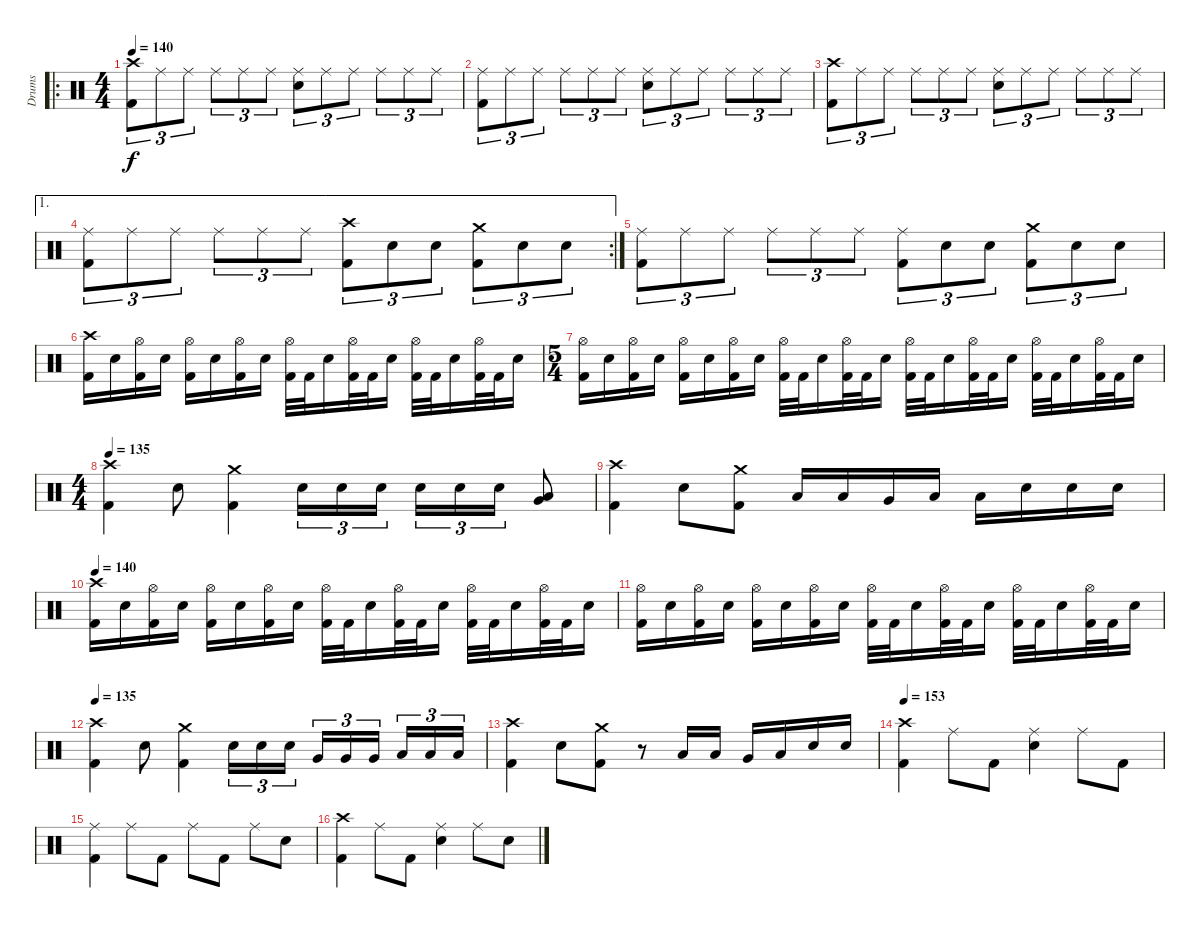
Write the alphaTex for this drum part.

\track ("Drums" "Drums") {instrument percussion}
\staff {score}
\articulation defaults
\ro
\ts (4 4)
\tempo 140
\clef neutral
\ks c
("Crash high (hit)" "Kick (hit) 2").8{tu (3 2) dy f} "Ride (middle)".8{tu (3 2)} "Ride (middle)".8{tu (3 2)} "Ride (middle)".8{tu (3 2)} "Ride (middle)".8{tu (3 2)} "Ride (middle)".8{tu (3 2)} ("Ride (middle)" "Electric Snare (hit)").8{tu (3 2)} "Ride (middle)".8{tu (3 2)} "Ride (middle)".8{tu (3 2)} "Ride (middle)".8{tu (3 2)} "Ride (middle)".8{tu (3 2)} "Ride (middle)".8{tu (3 2)} |
("Ride (middle)" "Kick (hit) 2").8{tu (3 2)} "Ride (middle)".8{tu (3 2)} "Ride (middle)".8{tu (3 2)} "Ride (middle)".8{tu (3 2)} "Ride (middle)".8{tu (3 2)} "Ride (middle)".8{tu (3 2)} ("Ride (middle)" "Electric Snare (hit)").8{tu (3 2)} "Ride (middle)".8{tu (3 2)} "Ride (middle)".8{tu (3 2)} "Ride (middle)".8{tu (3 2)} "Ride (middle)".8{tu (3 2)} "Ride (middle)".8{tu (3 2)} |
("Crash high (hit)" "Kick (hit) 2").8{tu (3 2)} "Ride (middle)".8{tu (3 2)} "Ride (middle)".8{tu (3 2)} "Ride (middle)".8{tu (3 2)} "Ride (middle)".8{tu (3 2)} "Ride (middle)".8{tu (3 2)} ("Ride (middle)" "Electric Snare (hit)").8{tu (3 2)} "Ride (middle)".8{tu (3 2)} "Ride (middle)".8{tu (3 2)} "Ride (middle)".8{tu (3 2)} "Ride (middle)".8{tu (3 2)} "Ride (middle)".8{tu (3 2)} |
\ae 1
\rc 2
("Ride (middle)" "Kick (hit) 2").8{tu (3 2)} "Ride (middle)".8{tu (3 2)} "Ride (middle)".8{tu (3 2)} "Ride (middle)".8{tu (3 2)} "Ride (middle)".8{tu (3 2)} "Ride (middle)".8{tu (3 2)} ("Crash high (hit)" "Kick (hit) 2").8{tu (3 2)} "Electric Snare (hit)".8{tu (3 2)} "Electric Snare (hit)".8{tu (3 2)} ("Crash medium (hit)" "Kick (hit) 2").8{tu (3 2)} "Electric Snare (hit)".8{tu (3 2)} "Electric Snare (hit)".8{tu (3 2)} |
("Ride (middle)" "Kick (hit) 2").8{tu (3 2)} "Ride (middle)".8{tu (3 2)} "Ride (middle)".8{tu (3 2)} "Ride (middle)".8{tu (3 2)} "Ride (middle)".8{tu (3 2)} "Ride (middle)".8{tu (3 2)} ("Ride (middle)" "Kick (hit) 2").8{tu (3 2)} "Electric Snare (hit)".8{tu (3 2)} "Electric Snare (hit)".8{tu (3 2)} ("Crash medium (hit)" "Kick (hit) 2").8{tu (3 2)} "Electric Snare (hit)".8{tu (3 2)} "Electric Snare (hit)".8{tu (3 2)} |
("Crash high (hit)" "Kick (hit) 2").16 "Electric Snare (hit)".16 ("Hi-Hat (open)" "Kick (hit) 2").16 "Electric Snare (hit)".16 ("Hi-Hat (open)" "Kick (hit) 2").16 "Electric Snare (hit)".16 ("Hi-Hat (open)" "Kick (hit) 2").16 "Electric Snare (hit)".16 ("Hi-Hat (open)" "Kick (hit) 2").32 "Kick (hit) 2".32 "Electric Snare (hit)".16 ("Hi-Hat (open)" "Kick (hit) 2").32 "Kick (hit) 2".32 "Electric Snare (hit)".16 ("Hi-Hat (open)" "Kick (hit) 2").32 "Kick (hit) 2".32 "Electric Snare (hit)".16 ("Hi-Hat (open)" "Kick (hit) 2").32 "Kick (hit) 2".32 "Electric Snare (hit)".16 |
\ts (5 4)
("Hi-Hat (open)" "Kick (hit) 2").16 "Electric Snare (hit)".16 ("Hi-Hat (open)" "Kick (hit) 2").16 "Electric Snare (hit)".16 ("Hi-Hat (open)" "Kick (hit) 2").16 "Electric Snare (hit)".16 ("Hi-Hat (open)" "Kick (hit) 2").16 "Electric Snare (hit)".16 ("Hi-Hat (open)" "Kick (hit) 2").32 "Kick (hit) 2".32 "Electric Snare (hit)".16 ("Hi-Hat (open)" "Kick (hit) 2").32 "Kick (hit) 2".32 "Electric Snare (hit)".16 ("Hi-Hat (open)" "Kick (hit) 2").32 "Kick (hit) 2".32 "Electric Snare (hit)".16 ("Hi-Hat (open)" "Kick (hit) 2").32 "Kick (hit) 2".32 "Electric Snare (hit)".16 ("Hi-Hat (open)" "Kick (hit) 2").32 "Kick (hit) 2".32 "Electric Snare (hit)".16 ("Hi-Hat (open)" "Kick (hit) 2").32 "Kick (hit) 2".32 "Electric Snare (hit)".16 |
\ts (4 4)
\tempo 135
("Crash high (hit)" "Kick (hit) 2").4 "Electric Snare (hit)".8 ("Crash medium (hit)" "Kick (hit) 2").4 "Electric Snare (hit)".16{tu (3 2)} "Electric Snare (hit)".16{tu (3 2)} "Electric Snare (hit)".16{tu (3 2)} "Electric Snare (hit)".16{tu (3 2)} "Electric Snare (hit)".16{tu (3 2)} "Electric Snare (hit)".16{tu (3 2)} ("Very Low Tom (hit)" "Low Floor Tom (hit)").8 |
("Crash high (hit)" "Kick (hit) 2").4 "Electric Snare (hit)".8 ("Crash medium (hit)" "Kick (hit) 2").8 "Low Tom (hit)".16 "Low Tom (hit)".16 "Very Low Tom (hit)".16 "Low Floor Tom (hit)".16 "Low Floor Tom (hit)".16 "Electric Snare (hit)".16 "Electric Snare (hit)".16 "Electric Snare (hit)".16 |
\tempo 140
("Crash high (hit)" "Kick (hit) 2").16 "Electric Snare (hit)".16 ("Hi-Hat (open)" "Kick (hit) 2").16 "Electric Snare (hit)".16 ("Hi-Hat (open)" "Kick (hit) 2").16 "Electric Snare (hit)".16 ("Hi-Hat (open)" "Kick (hit) 2").16 "Electric Snare (hit)".16 ("Hi-Hat (open)" "Kick (hit) 2").32 "Kick (hit) 2".32 "Electric Snare (hit)".16 ("Hi-Hat (open)" "Kick (hit) 2").32 "Kick (hit) 2".32 "Electric Snare (hit)".16 ("Hi-Hat (open)" "Kick (hit) 2").32 "Kick (hit) 2".32 "Electric Snare (hit)".16 ("Hi-Hat (open)" "Kick (hit) 2").32 "Kick (hit) 2".32 "Electric Snare (hit)".16 |
("Hi-Hat (open)" "Kick (hit) 2").16 "Electric Snare (hit)".16 ("Hi-Hat (open)" "Kick (hit) 2").16 "Electric Snare (hit)".16 ("Hi-Hat (open)" "Kick (hit) 2").16 "Electric Snare (hit)".16 ("Hi-Hat (open)" "Kick (hit) 2").16 "Electric Snare (hit)".16 ("Hi-Hat (open)" "Kick (hit) 2").32 "Kick (hit) 2".32 "Electric Snare (hit)".16 ("Hi-Hat (open)" "Kick (hit) 2").32 "Kick (hit) 2".32 "Electric Snare (hit)".16 ("Hi-Hat (open)" "Kick (hit) 2").32 "Kick (hit) 2".32 "Electric Snare (hit)".16 ("Hi-Hat (open)" "Kick (hit) 2").32 "Kick (hit) 2".32 "Electric Snare (hit)".16 |
\tempo 135
("Crash high (hit)" "Kick (hit) 2").4 "Electric Snare (hit)".8 ("Crash medium (hit)" "Kick (hit) 2").4 "Electric Snare (hit)".16{tu (3 2)} "Electric Snare (hit)".16{tu (3 2)} "Electric Snare (hit)".16{tu (3 2)} "Very Low Tom (hit)".16{tu (3 2)} "Very Low Tom (hit)".16{tu (3 2)} "Very Low Tom (hit)".16{tu (3 2) beam splitsecondary} "Low Floor Tom (hit)".16{tu (3 2)} "Low Floor Tom (hit)".16{tu (3 2)} "Low Floor Tom (hit)".16{tu (3 2)} |
("Crash high (hit)" "Kick (hit) 2").4 "Electric Snare (hit)".8 ("Crash medium (hit)" "Kick (hit) 2").8 r.8 "Low Tom (hit)".16 "Low Tom (hit)".16 "Very Low Tom (hit)".16 "Low Floor Tom (hit)".16 "Electric Snare (hit)".16 "Electric Snare (hit)".16 |
\tempo 153
("Crash high (hit)" "Kick (hit) 2").4 "Ride (middle)".8 "Kick (hit) 2".8 ("Ride (middle)" "Electric Snare (hit)").4 "Ride (middle)".8 "Kick (hit) 2".8 |
("Ride (middle)" "Kick (hit) 2").4 "Ride (middle)".8 "Kick (hit) 2".8 "Ride (middle)".8 "Kick (hit) 2".8 "Ride (middle)".8 "Electric Snare (hit)".8 |
("Crash high (hit)" "Kick (hit) 2").4 "Ride (middle)".8 "Kick (hit) 2".8 ("Ride (middle)" "Electric Snare (hit)").4 "Ride (middle)".8 "Electric Snare (hit)".8
